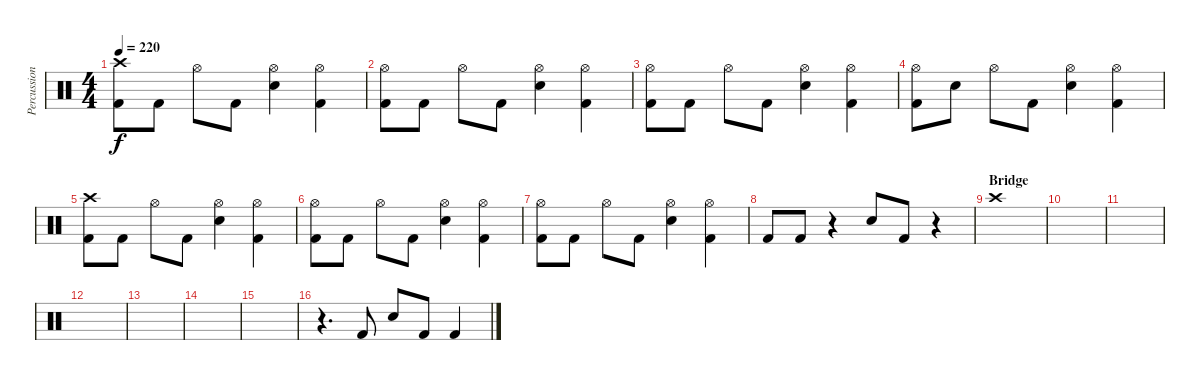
\track ("Percussion" "Percussion") {instrument percussion}
\staff {score}
\articulation defaults
\ts (4 4)
\tempo 220
\clef neutral
\ks c
("Crash high (hit)" "Kick (hit) 2").8{dy f} "Kick (hit) 2".8 "Hi-Hat (open)".8 "Kick (hit) 2".8 ("Hi-Hat (open)" "Snare (hit) 2").4 ("Hi-Hat (open)" "Kick (hit) 2").4 |
("Hi-Hat (open)" "Kick (hit) 2").8 "Kick (hit) 2".8 "Hi-Hat (open)".8 "Kick (hit) 2".8 ("Hi-Hat (open)" "Snare (hit) 2").4 ("Hi-Hat (open)" "Kick (hit) 2").4 |
("Hi-Hat (open)" "Kick (hit) 2").8 "Kick (hit) 2".8 "Hi-Hat (open)".8 "Kick (hit) 2".8 ("Hi-Hat (open)" "Snare (hit) 2").4 ("Hi-Hat (open)" "Kick (hit) 2").4 |
("Hi-Hat (open)" "Kick (hit) 2").8 "Snare (hit) 2".8 "Hi-Hat (open)".8 "Kick (hit) 2".8 ("Hi-Hat (open)" "Snare (hit) 2").4 ("Hi-Hat (open)" "Kick (hit) 2").4 |
("Crash high (hit)" "Kick (hit) 2").8 "Kick (hit) 2".8 "Hi-Hat (open)".8 "Kick (hit) 2".8 ("Hi-Hat (open)" "Snare (hit) 2").4 ("Hi-Hat (open)" "Kick (hit) 2").4 |
("Hi-Hat (open)" "Kick (hit) 2").8 "Kick (hit) 2".8 "Hi-Hat (open)".8 "Kick (hit) 2".8 ("Hi-Hat (open)" "Snare (hit) 2").4 ("Hi-Hat (open)" "Kick (hit) 2").4 |
("Hi-Hat (open)" "Kick (hit) 2").8 "Kick (hit) 2".8 "Hi-Hat (open)".8 "Kick (hit) 2".8 ("Hi-Hat (open)" "Snare (hit) 2").4 ("Hi-Hat (open)" "Kick (hit) 2").4 |
"Kick (hit) 2".8 "Kick (hit) 2".8 r.4 "Snare (hit) 2".8 "Kick (hit) 2".8 r.4 |
\section ("" "Bridge")
"Crash high (hit)".1 |
|
|
|
|
|
|
r.4{d} "Kick (hit) 2".8 "Snare (hit) 2".8 "Kick (hit) 2".8 "Kick (hit) 2".4
